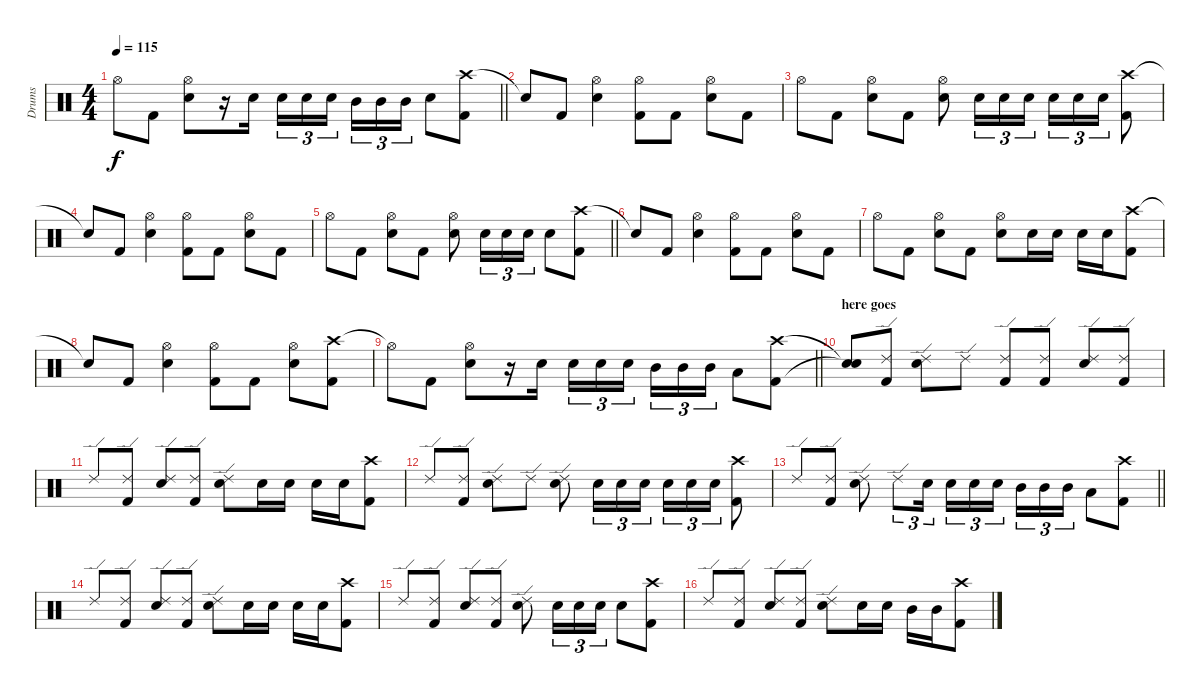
\track ("Drums" "Drums") {instrument percussion}
\staff {score}
\articulation defaults
\ts (4 4)
\tempo 115
\clef neutral
\barLineRight lightlight
\ks c "Hi-Hat (open)".8{dy f} "Kick (hit) 2".8
("Hi-Hat (open)" "Electric Snare (hit)").8 r.16 "Electric Snare (hit)".16 "Electric Snare (hit)".16{tu (3 2)} "Electric Snare (hit)".16{tu (3 2)} "Electric Snare (hit)".16{tu (3 2) beam splitsecondary} "Mid Tom (hit)".16{tu (3 2)} "Mid Tom (hit)".16{tu (3 2)} "Mid Tom (hit)".16{tu (3 2)} "Electric Snare (hit)".8 ("Crash high (hit)" "Kick (hit) 2").8 |
\section ("" "")
"Snare (hit)"{t}.8 "Kick (hit) 2".8 ("Hi-Hat (open)" "Electric Snare (hit)").4 ("Hi-Hat (open)" "Kick (hit) 2").8 "Kick (hit) 2".8 ("Hi-Hat (open)" "Electric Snare (hit)").8 "Kick (hit) 2".8 |
"Hi-Hat (open)".8 "Kick (hit) 2".8 ("Hi-Hat (open)" "Electric Snare (hit)").8 "Kick (hit) 2".8 ("Hi-Hat (open)" "Electric Snare (hit)").8 "Electric Snare (hit)".16{tu (3 2)} "Electric Snare (hit)".16{tu (3 2)} "Electric Snare (hit)".16{tu (3 2)} "Electric Snare (hit)".16{tu (3 2)} "Electric Snare (hit)".16{tu (3 2)} "Electric Snare (hit)".16{tu (3 2)} ("Crash high (hit)" "Kick (hit) 2").8 |
"Snare (hit)"{t}.8 "Kick (hit) 2".8 ("Hi-Hat (open)" "Electric Snare (hit)").4 ("Hi-Hat (open)" "Kick (hit) 2").8 "Kick (hit) 2".8 ("Hi-Hat (open)" "Electric Snare (hit)").8 "Kick (hit) 2".8 |
\barLineRight lightlight "Hi-Hat (open)".8 "Kick (hit) 2".8
("Hi-Hat (open)" "Electric Snare (hit)").8 "Kick (hit) 2".8 ("Hi-Hat (open)" "Electric Snare (hit)").8 "Electric Snare (hit)".16{tu (3 2)} "Electric Snare (hit)".16{tu (3 2)} "Electric Snare (hit)".16{tu (3 2)} "Electric Snare (hit)".8 ("Crash high (hit)" "Kick (hit) 2").8 |
\section ("" "")
"Snare (hit)"{t}.8 "Kick (hit) 2".8 ("Hi-Hat (open)" "Electric Snare (hit)").4 ("Hi-Hat (open)" "Kick (hit) 2").8 "Kick (hit) 2".8 ("Hi-Hat (open)" "Electric Snare (hit)").8 "Kick (hit) 2".8 |
"Hi-Hat (open)".8 "Kick (hit) 2".8 ("Hi-Hat (open)" "Electric Snare (hit)").8 "Kick (hit) 2".8 ("Hi-Hat (open)" "Electric Snare (hit)").8 "Electric Snare (hit)".16 "Electric Snare (hit)".16 "Electric Snare (hit)".16 "Electric Snare (hit)".16 ("Crash high (hit)" "Kick (hit) 2").8 |
"Snare (hit)"{t}.8 "Kick (hit) 2".8 ("Hi-Hat (open)" "Electric Snare (hit)").4 ("Hi-Hat (open)" "Kick (hit) 2").8 "Kick (hit) 2".8 ("Hi-Hat (open)" "Electric Snare (hit)").8 ("Crash high (hit)" "Kick (hit) 2").8 |
\barLineRight lightlight "Hi-Hat (open)"{t}.8 "Kick (hit) 2".8
("Hi-Hat (open)" "Electric Snare (hit)").8 r.16 "Electric Snare (hit)".16 "Electric Snare (hit)".16{tu (3 2)} "Electric Snare (hit)".16{tu (3 2)} "Electric Snare (hit)".16{tu (3 2) beam splitsecondary} "Mid Tom (hit)".16{tu (3 2)} "Mid Tom (hit)".16{tu (3 2)} "Mid Tom (hit)".16{tu (3 2)} "Low Tom (hit)".8 ("Crash high (hit)" "Kick (hit) 2").8 |
\section ("" "here goes")
("Snare (hit)"{t} "Snare (hit)"{t}).8 ("Ride (edge) 2" "Kick (hit) 2").8 ("Ride (edge) 2" "Electric Snare (hit)").8 "Ride (edge) 2".8 ("Ride (edge) 2" "Kick (hit) 2").8 ("Ride (edge) 2" "Kick (hit) 2").8 ("Ride (edge) 2" "Electric Snare (hit)").8 ("Ride (edge) 2" "Kick (hit) 2").8 |
"Ride (edge) 2".8 ("Ride (edge) 2" "Kick (hit) 2").8 ("Ride (edge) 2" "Electric Snare (hit)").8 ("Ride (edge) 2" "Kick (hit) 2").8 ("Ride (edge) 2" "Electric Snare (hit)").8 "Electric Snare (hit)".16 "Electric Snare (hit)".16 "Electric Snare (hit)".16 "Electric Snare (hit)".16 ("Crash high (hit)" "Kick (hit) 2").8 |
"Ride (edge) 2".8 ("Ride (edge) 2" "Kick (hit) 2").8 ("Ride (edge) 2" "Electric Snare (hit)").8 "Ride (edge) 2".8 ("Ride (edge) 2" "Electric Snare (hit)").8 "Electric Snare (hit)".16{tu (3 2)} "Electric Snare (hit)".16{tu (3 2)} "Electric Snare (hit)".16{tu (3 2)} "Electric Snare (hit)".16{tu (3 2)} "Electric Snare (hit)".16{tu (3 2)} "Electric Snare (hit)".16{tu (3 2)} ("Crash high (hit)" "Kick (hit) 2").8 |
\barLineRight lightlight "Ride (edge) 2".8
("Ride (edge) 2" "Kick (hit) 2").8 ("Ride (edge) 2" "Electric Snare (hit)").8 "Ride (edge) 2".8{tu (3 2)} "Electric Snare (hit)".16{tu (3 2)} "Electric Snare (hit)".16{tu (3 2)} "Electric Snare (hit)".16{tu (3 2)} "Electric Snare (hit)".16{tu (3 2) beam splitsecondary} "Mid Tom (hit)".16{tu (3 2)} "Mid Tom (hit)".16{tu (3 2)} "Mid Tom (hit)".16{tu (3 2)} "Low Tom (hit)".8 ("Crash high (hit)" "Kick (hit) 2").8 |
\section ("" "")
"Ride (edge) 2".8 ("Ride (edge) 2" "Kick (hit) 2").8 ("Ride (edge) 2" "Electric Snare (hit)").8 ("Ride (edge) 2" "Kick (hit) 2").8 ("Ride (edge) 2" "Electric Snare (hit)").8 "Electric Snare (hit)".16 "Electric Snare (hit)".16 "Electric Snare (hit)".16 "Electric Snare (hit)".16 ("Crash high (hit)" "Kick (hit) 2").8 |
"Ride (edge) 2".8 ("Ride (edge) 2" "Kick (hit) 2").8 ("Ride (edge) 2" "Electric Snare (hit)").8 ("Ride (edge) 2" "Kick (hit) 2").8 ("Ride (edge) 2" "Electric Snare (hit)").8 "Electric Snare (hit)".16{tu (3 2)} "Electric Snare (hit)".16{tu (3 2)} "Electric Snare (hit)".16{tu (3 2)} "Electric Snare (hit)".8 ("Crash high (hit)" "Kick (hit) 2").8 |
"Ride (edge) 2".8 ("Ride (edge) 2" "Kick (hit) 2").8 ("Ride (edge) 2" "Electric Snare (hit)").8 ("Ride (edge) 2" "Kick (hit) 2").8 ("Ride (edge) 2" "Electric Snare (hit)").8 "Electric Snare (hit)".16 "Electric Snare (hit)".16 "Mid Tom (hit)".16 "Mid Tom (hit)".16 ("Crash high (hit)" "Kick (hit) 2").8
